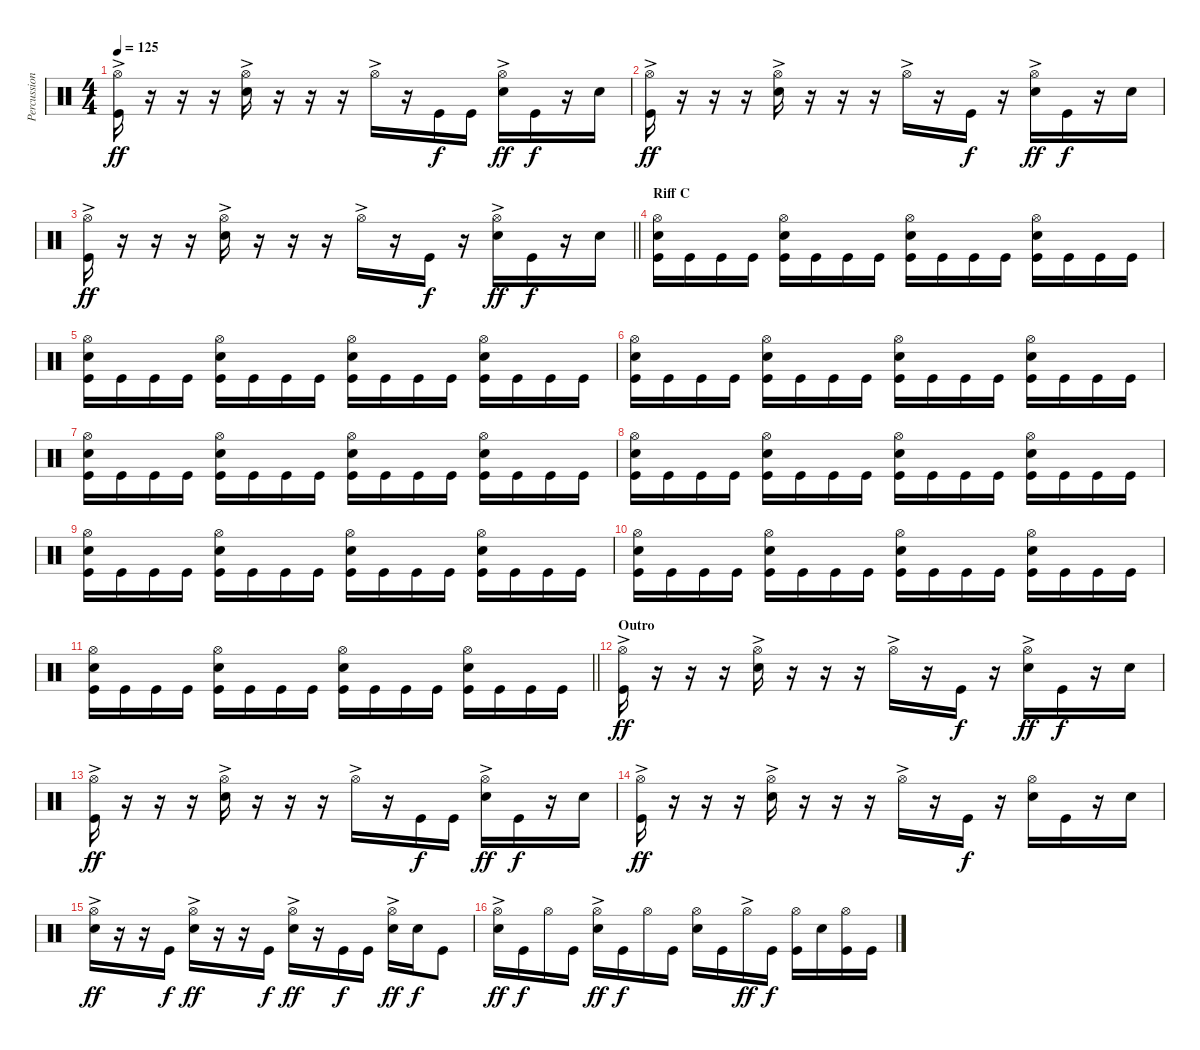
\track ("Percussion" "Percussion") {instrument percussion}
\staff {score}
\articulation defaults
\ts (4 4)
\tempo 125
\clef neutral
\ks c
("Hi-Hat (open)"{ac} "Kick (hit)").16{dy ff} r.16 r.16 r.16 ("Hi-Hat (open)"{ac} "Snare (hit) 2").16 r.16 r.16 r.16 "Hi-Hat (open)"{ac}.16 r.16 "Kick (hit)".16{dy f} "Kick (hit)".16 ("Hi-Hat (open)"{ac} "Snare (hit) 2").16{dy ff} "Kick (hit)".16{dy f} r.16 "Snare (hit) 2".16 |
("Hi-Hat (open)"{ac} "Kick (hit)").16{dy ff} r.16 r.16 r.16 ("Hi-Hat (open)"{ac} "Snare (hit) 2").16 r.16 r.16 r.16 "Hi-Hat (open)"{ac}.16 r.16 "Kick (hit)".16{dy f} r.16 ("Hi-Hat (open)"{ac} "Snare (hit) 2").16{dy ff} "Kick (hit)".16{dy f} r.16 "Snare (hit) 2".16 |
\barLineRight lightlight
("Hi-Hat (open)"{ac} "Kick (hit)").16{dy ff} r.16 r.16 r.16 ("Hi-Hat (open)"{ac} "Snare (hit) 2").16 r.16 r.16 r.16 "Hi-Hat (open)"{ac}.16 r.16 "Kick (hit)".16{dy f} r.16 ("Hi-Hat (open)"{ac} "Snare (hit) 2").16{dy ff} "Kick (hit)".16{dy f} r.16 "Snare (hit) 2".16 |
\section ("" "Riff C")
("Hi-Hat (open)" "Snare (hit) 2" "Kick (hit)").16 "Kick (hit)".16 "Kick (hit)".16 "Kick (hit)".16 ("Hi-Hat (open)" "Snare (hit) 2" "Kick (hit)").16 "Kick (hit)".16 "Kick (hit)".16 "Kick (hit)".16 ("Hi-Hat (open)" "Snare (hit) 2" "Kick (hit)").16 "Kick (hit)".16 "Kick (hit)".16 "Kick (hit)".16 ("Hi-Hat (open)" "Snare (hit) 2" "Kick (hit)").16 "Kick (hit)".16 "Kick (hit)".16 "Kick (hit)".16 |
("Hi-Hat (open)" "Snare (hit) 2" "Kick (hit)").16 "Kick (hit)".16 "Kick (hit)".16 "Kick (hit)".16 ("Hi-Hat (open)" "Snare (hit) 2" "Kick (hit)").16 "Kick (hit)".16 "Kick (hit)".16 "Kick (hit)".16 ("Hi-Hat (open)" "Snare (hit) 2" "Kick (hit)").16 "Kick (hit)".16 "Kick (hit)".16 "Kick (hit)".16 ("Hi-Hat (open)" "Snare (hit) 2" "Kick (hit)").16 "Kick (hit)".16 "Kick (hit)".16 "Kick (hit)".16 |
("Hi-Hat (open)" "Snare (hit) 2" "Kick (hit)").16 "Kick (hit)".16 "Kick (hit)".16 "Kick (hit)".16 ("Hi-Hat (open)" "Snare (hit) 2" "Kick (hit)").16 "Kick (hit)".16 "Kick (hit)".16 "Kick (hit)".16 ("Hi-Hat (open)" "Snare (hit) 2" "Kick (hit)").16 "Kick (hit)".16 "Kick (hit)".16 "Kick (hit)".16 ("Hi-Hat (open)" "Snare (hit) 2" "Kick (hit)").16 "Kick (hit)".16 "Kick (hit)".16 "Kick (hit)".16 |
("Hi-Hat (open)" "Snare (hit) 2" "Kick (hit)").16 "Kick (hit)".16 "Kick (hit)".16 "Kick (hit)".16 ("Hi-Hat (open)" "Snare (hit) 2" "Kick (hit)").16 "Kick (hit)".16 "Kick (hit)".16 "Kick (hit)".16 ("Hi-Hat (open)" "Snare (hit) 2" "Kick (hit)").16 "Kick (hit)".16 "Kick (hit)".16 "Kick (hit)".16 ("Hi-Hat (open)" "Snare (hit) 2" "Kick (hit)").16 "Kick (hit)".16 "Kick (hit)".16 "Kick (hit)".16 |
("Hi-Hat (open)" "Snare (hit) 2" "Kick (hit)").16 "Kick (hit)".16 "Kick (hit)".16 "Kick (hit)".16 ("Hi-Hat (open)" "Snare (hit) 2" "Kick (hit)").16 "Kick (hit)".16 "Kick (hit)".16 "Kick (hit)".16 ("Hi-Hat (open)" "Snare (hit) 2" "Kick (hit)").16 "Kick (hit)".16 "Kick (hit)".16 "Kick (hit)".16 ("Hi-Hat (open)" "Snare (hit) 2" "Kick (hit)").16 "Kick (hit)".16 "Kick (hit)".16 "Kick (hit)".16 |
("Hi-Hat (open)" "Snare (hit) 2" "Kick (hit)").16 "Kick (hit)".16 "Kick (hit)".16 "Kick (hit)".16 ("Hi-Hat (open)" "Snare (hit) 2" "Kick (hit)").16 "Kick (hit)".16 "Kick (hit)".16 "Kick (hit)".16 ("Hi-Hat (open)" "Snare (hit) 2" "Kick (hit)").16 "Kick (hit)".16 "Kick (hit)".16 "Kick (hit)".16 ("Hi-Hat (open)" "Snare (hit) 2" "Kick (hit)").16 "Kick (hit)".16 "Kick (hit)".16 "Kick (hit)".16 |
("Hi-Hat (open)" "Snare (hit) 2" "Kick (hit)").16 "Kick (hit)".16 "Kick (hit)".16 "Kick (hit)".16 ("Hi-Hat (open)" "Snare (hit) 2" "Kick (hit)").16 "Kick (hit)".16 "Kick (hit)".16 "Kick (hit)".16 ("Hi-Hat (open)" "Snare (hit) 2" "Kick (hit)").16 "Kick (hit)".16 "Kick (hit)".16 "Kick (hit)".16 ("Hi-Hat (open)" "Snare (hit) 2" "Kick (hit)").16 "Kick (hit)".16 "Kick (hit)".16 "Kick (hit)".16 |
\barLineRight lightlight
("Hi-Hat (open)" "Snare (hit) 2" "Kick (hit)").16 "Kick (hit)".16 "Kick (hit)".16 "Kick (hit)".16 ("Hi-Hat (open)" "Snare (hit) 2" "Kick (hit)").16 "Kick (hit)".16 "Kick (hit)".16 "Kick (hit)".16 ("Hi-Hat (open)" "Snare (hit) 2" "Kick (hit)").16 "Kick (hit)".16 "Kick (hit)".16 "Kick (hit)".16 ("Hi-Hat (open)" "Snare (hit) 2" "Kick (hit)").16 "Kick (hit)".16 "Kick (hit)".16 "Kick (hit)".16 |
\section ("" "Outro")
("Hi-Hat (open)"{ac} "Kick (hit)").16{dy ff} r.16 r.16 r.16 ("Hi-Hat (open)"{ac} "Snare (hit) 2").16 r.16 r.16 r.16 "Hi-Hat (open)"{ac}.16 r.16 "Kick (hit)".16{dy f} r.16 ("Hi-Hat (open)"{ac} "Snare (hit) 2").16{dy ff} "Kick (hit)".16{dy f} r.16 "Snare (hit) 2".16 |
("Hi-Hat (open)"{ac} "Kick (hit)").16{dy ff} r.16 r.16 r.16 ("Hi-Hat (open)"{ac} "Snare (hit) 2").16 r.16 r.16 r.16 "Hi-Hat (open)"{ac}.16 r.16 "Kick (hit)".16{dy f} "Kick (hit)".16 ("Hi-Hat (open)"{ac} "Snare (hit) 2").16{dy ff} "Kick (hit)".16{dy f} r.16 "Snare (hit) 2".16 |
("Hi-Hat (open)"{ac} "Kick (hit)").16{dy ff} r.16 r.16 r.16 ("Hi-Hat (open)"{ac} "Snare (hit) 2").16 r.16 r.16 r.16 "Hi-Hat (open)"{ac}.16 r.16 "Kick (hit)".16{dy f} r.16 ("Hi-Hat (open)" "Snare (hit) 2").16 "Kick (hit)".16 r.16 "Snare (hit) 2".16 |
("Hi-Hat (open)"{ac} "Snare (hit) 2").16{dy ff} r.16 r.16 "Kick (hit)".16{dy f} ("Hi-Hat (open)"{ac} "Snare (hit) 2").16{dy ff} r.16 r.16 "Kick (hit)".16{dy f} ("Hi-Hat (open)"{ac} "Snare (hit) 2").16{dy ff} r.16 "Kick (hit)".16{dy f} "Kick (hit)".16 ("Hi-Hat (open)"{ac} "Snare (hit) 2").16{dy ff} "Snare (hit) 2".16{dy f} "Kick (hit)".8 |
("Hi-Hat (open)"{ac} "Snare (hit) 2").16{dy ff} "Kick (hit)".16{dy f} "Hi-Hat (open)".16 "Kick (hit)".16 ("Hi-Hat (open)"{ac} "Snare (hit) 2").16{dy ff} "Kick (hit)".16{dy f} "Hi-Hat (open)".16 "Kick (hit)".16 ("Hi-Hat (open)" "Snare (hit) 2").16 "Kick (hit)".16 "Hi-Hat (open)"{ac}.16{dy ff} "Kick (hit)".16{dy f} ("Hi-Hat (open)" "Kick (hit)").16 "Snare (hit) 2".16 ("Hi-Hat (open)" "Kick (hit)").16 "Kick (hit)".16
